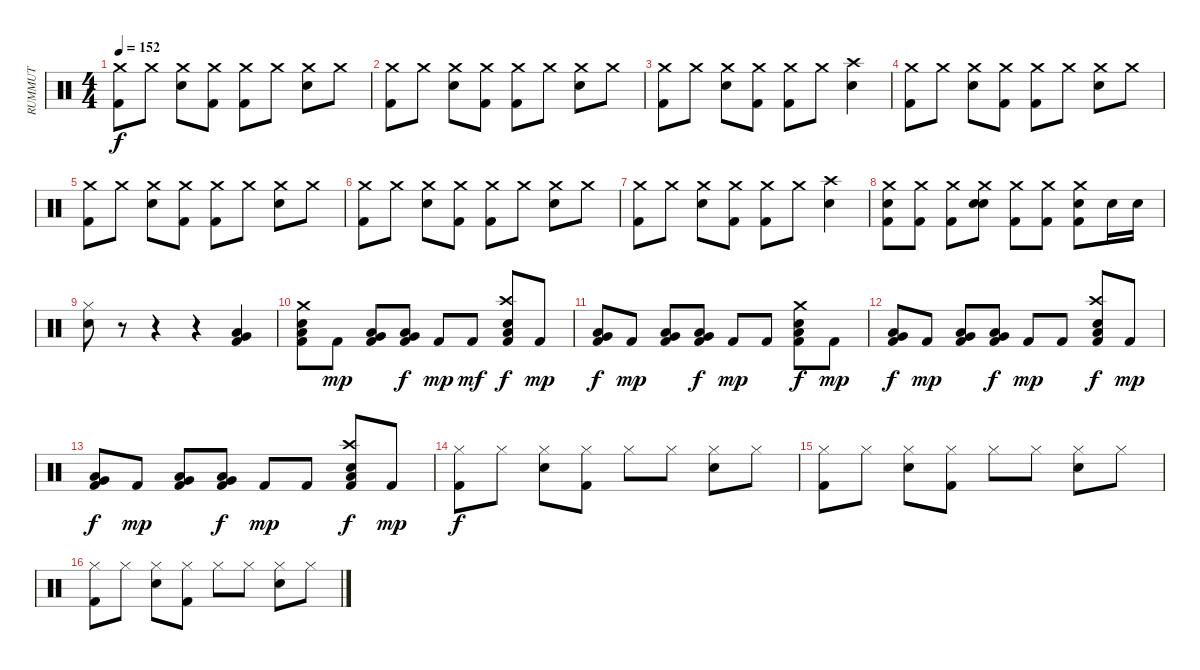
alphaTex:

\track ("RUMMUT" "RUMMUT") {instrument percussion}
\staff {score}
\articulation defaults
\ts (4 4)
\tempo 152
\clef neutral
\ks c
("Crash medium (hit)" "Kick (hit) 2").8{dy f} "Crash medium (hit)".8 ("Crash medium (hit)" "Electric Snare (hit)").8 ("Crash medium (hit)" "Kick (hit) 2").8 ("Crash medium (hit)" "Kick (hit) 2").8 "Crash medium (hit)".8 ("Crash medium (hit)" "Electric Snare (hit)").8 "Crash medium (hit)".8 |
("Crash medium (hit)" "Kick (hit) 2").8 "Crash medium (hit)".8 ("Crash medium (hit)" "Electric Snare (hit)").8 ("Crash medium (hit)" "Kick (hit) 2").8 ("Crash medium (hit)" "Kick (hit) 2").8 "Crash medium (hit)".8 ("Crash medium (hit)" "Electric Snare (hit)").8 "Crash medium (hit)".8 |
("Crash medium (hit)" "Kick (hit) 2").8 "Crash medium (hit)".8 ("Crash medium (hit)" "Electric Snare (hit)").8 ("Crash medium (hit)" "Kick (hit) 2").8 ("Crash medium (hit)" "Kick (hit) 2").8 "Crash medium (hit)".8 ("Crash high (hit)" "Electric Snare (hit)").4 |
("Crash medium (hit)" "Kick (hit) 2").8 "Crash medium (hit)".8 ("Crash medium (hit)" "Electric Snare (hit)").8 ("Crash medium (hit)" "Kick (hit) 2").8 ("Crash medium (hit)" "Kick (hit) 2").8 "Crash medium (hit)".8 ("Crash medium (hit)" "Electric Snare (hit)").8 "Crash medium (hit)".8 |
("Crash medium (hit)" "Kick (hit) 2").8 "Crash medium (hit)".8 ("Crash medium (hit)" "Electric Snare (hit)").8 ("Crash medium (hit)" "Kick (hit) 2").8 ("Crash medium (hit)" "Kick (hit) 2").8 "Crash medium (hit)".8 ("Crash medium (hit)" "Electric Snare (hit)").8 "Crash medium (hit)".8 |
("Crash medium (hit)" "Kick (hit) 2").8 "Crash medium (hit)".8 ("Crash medium (hit)" "Electric Snare (hit)").8 ("Crash medium (hit)" "Kick (hit) 2").8 ("Crash medium (hit)" "Kick (hit) 2").8 "Crash medium (hit)".8 ("Crash medium (hit)" "Electric Snare (hit)").8 "Crash medium (hit)".8 |
("Crash medium (hit)" "Kick (hit) 2").8 "Crash medium (hit)".8 ("Crash medium (hit)" "Electric Snare (hit)").8 ("Crash medium (hit)" "Kick (hit) 2").8 ("Crash medium (hit)" "Kick (hit) 2").8 "Crash medium (hit)".8 ("Crash high (hit)" "Electric Snare (hit)").4 |
("Crash medium (hit)" "Electric Snare (hit)" "Kick (hit) 2").8 ("Crash medium (hit)" "Kick (hit) 2").8 ("Crash medium (hit)" "Kick (hit) 2").8 ("Crash medium (hit)" "Electric Snare (hit)" "Electric Snare (hit)").8 ("Crash medium (hit)" "Kick (hit) 2").8 ("Crash medium (hit)" "Kick (hit) 2").8 ("Crash medium (hit)" "Electric Snare (hit)" "Kick (hit) 2").8 "Electric Snare (hit)".16 "Electric Snare (hit)".16 |
("Hi-Hat (closed)" "Electric Snare (hit)").8 r.8 r.4 r.4 ("Very Low Tom (hit)" "Low Floor Tom (hit)" "Kick (hit) 2").4 |
("Crash medium (hit)" "Electric Snare (hit)" "Low Tom (hit)" "Kick (hit) 2").8 "Kick (hit) 2".8{dy mp} ("Very Low Tom (hit)" "Low Tom (hit)" "Kick (hit) 2").8 ("Very Low Tom (hit)" "Low Tom (hit)" "Kick (hit) 2").8{dy f} "Kick (hit) 2".8{dy mp} "Kick (hit) 2".8{dy mf} ("Crash high (hit)" "Low Tom (hit)" "Electric Snare (hit)" "Kick (hit) 2").8{dy f} "Kick (hit) 2".8{dy mp} |
("Very Low Tom (hit)" "Low Tom (hit)" "Kick (hit) 2").8{dy f} "Kick (hit) 2".8{dy mp} ("Very Low Tom (hit)" "Low Tom (hit)" "Kick (hit) 2").8 ("Very Low Tom (hit)" "Low Tom (hit)" "Kick (hit) 2").8{dy f} "Kick (hit) 2".8{dy mp} "Kick (hit) 2".8 ("Crash medium (hit)" "Low Tom (hit)" "Electric Snare (hit)" "Kick (hit) 2").8{dy f} "Kick (hit) 2".8{dy mp} |
("Very Low Tom (hit)" "Low Tom (hit)" "Kick (hit) 2").8{dy f} "Kick (hit) 2".8{dy mp} ("Very Low Tom (hit)" "Low Tom (hit)" "Kick (hit) 2").8 ("Very Low Tom (hit)" "Low Tom (hit)" "Kick (hit) 2").8{dy f} "Kick (hit) 2".8{dy mp} "Kick (hit) 2".8 ("Crash high (hit)" "Low Tom (hit)" "Electric Snare (hit)" "Kick (hit) 2").8{dy f} "Kick (hit) 2".8{dy mp} |
("Very Low Tom (hit)" "Low Tom (hit)" "Kick (hit) 2").8{dy f} "Kick (hit) 2".8{dy mp} ("Very Low Tom (hit)" "Low Tom (hit)" "Kick (hit) 2").8 ("Very Low Tom (hit)" "Low Tom (hit)" "Kick (hit) 2").8{dy f} "Kick (hit) 2".8{dy mp} "Kick (hit) 2".8 ("Crash high (hit)" "Low Tom (hit)" "Electric Snare (hit)" "Kick (hit) 2").8{dy f} "Kick (hit) 2".8{dy mp} |
("Hi-Hat (closed)" "Kick (hit) 2").8{dy f} "Hi-Hat (closed)".8 ("Hi-Hat (closed)" "Electric Snare (hit)").8 ("Hi-Hat (closed)" "Kick (hit) 2").8 "Hi-Hat (closed)".8 "Hi-Hat (closed)".8 ("Hi-Hat (closed)" "Electric Snare (hit)").8 "Hi-Hat (closed)".8 |
("Hi-Hat (closed)" "Kick (hit) 2").8 "Hi-Hat (closed)".8 ("Hi-Hat (closed)" "Electric Snare (hit)").8 ("Hi-Hat (closed)" "Kick (hit) 2").8 "Hi-Hat (closed)".8 "Hi-Hat (closed)".8 ("Hi-Hat (closed)" "Electric Snare (hit)").8 "Hi-Hat (closed)".8 |
("Hi-Hat (closed)" "Kick (hit) 2").8 "Hi-Hat (closed)".8 ("Hi-Hat (closed)" "Electric Snare (hit)").8 ("Hi-Hat (closed)" "Kick (hit) 2").8 "Hi-Hat (closed)".8 "Hi-Hat (closed)".8 ("Hi-Hat (closed)" "Electric Snare (hit)").8 "Hi-Hat (closed)".8
